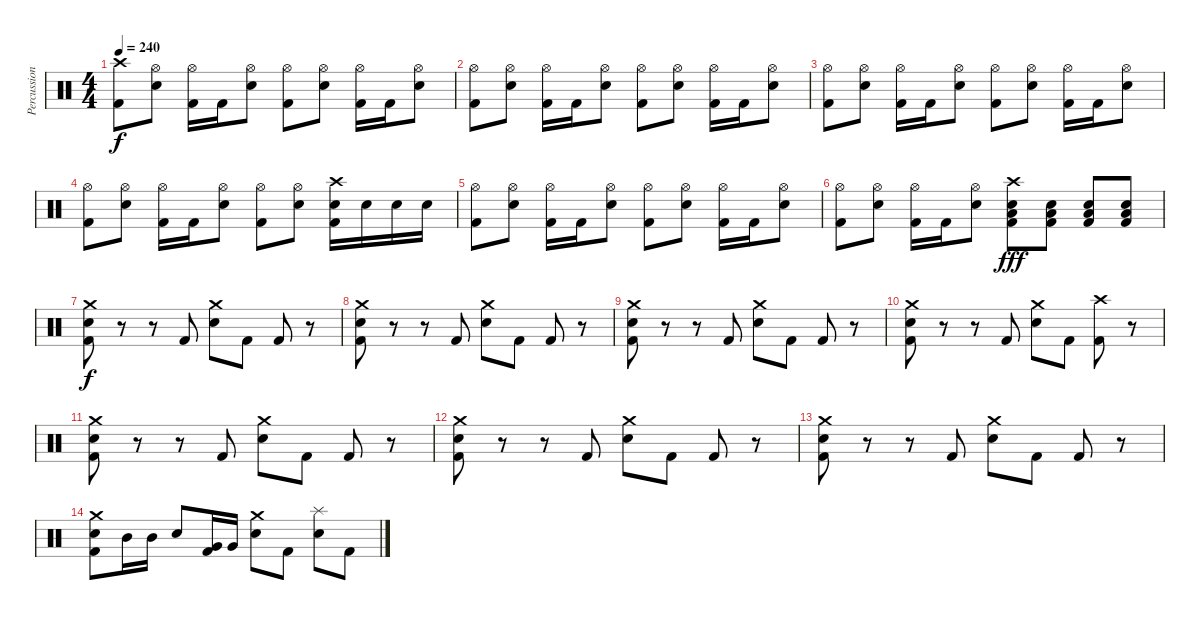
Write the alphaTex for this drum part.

\track ("Percussion" "Percussion") {instrument percussion}
\staff {score}
\articulation defaults
\ts (4 4)
\tempo 240
\clef neutral
\ks c
("Crash high (hit)" "Kick (hit) 2").8{dy f} ("Hi-Hat (open)" "Electric Snare (hit)").8 ("Hi-Hat (open)" "Kick (hit) 2").16 "Kick (hit) 2".16 ("Hi-Hat (open)" "Electric Snare (hit)").8 ("Hi-Hat (open)" "Kick (hit) 2").8 ("Hi-Hat (open)" "Electric Snare (hit)").8 ("Hi-Hat (open)" "Kick (hit) 2").16 "Kick (hit) 2".16 ("Hi-Hat (open)" "Electric Snare (hit)").8 |
("Hi-Hat (open)" "Kick (hit) 2").8 ("Hi-Hat (open)" "Electric Snare (hit)").8 ("Hi-Hat (open)" "Kick (hit) 2").16 "Kick (hit) 2".16 ("Hi-Hat (open)" "Electric Snare (hit)").8 ("Hi-Hat (open)" "Kick (hit) 2").8 ("Hi-Hat (open)" "Electric Snare (hit)").8 ("Hi-Hat (open)" "Kick (hit) 2").16 "Kick (hit) 2".16 ("Hi-Hat (open)" "Electric Snare (hit)").8 |
("Hi-Hat (open)" "Kick (hit) 2").8 ("Hi-Hat (open)" "Electric Snare (hit)").8 ("Hi-Hat (open)" "Kick (hit) 2").16 "Kick (hit) 2".16 ("Hi-Hat (open)" "Electric Snare (hit)").8 ("Hi-Hat (open)" "Kick (hit) 2").8 ("Hi-Hat (open)" "Electric Snare (hit)").8 ("Hi-Hat (open)" "Kick (hit) 2").16 "Kick (hit) 2".16 ("Hi-Hat (open)" "Electric Snare (hit)").8 |
("Hi-Hat (open)" "Kick (hit) 2").8 ("Hi-Hat (open)" "Electric Snare (hit)").8 ("Hi-Hat (open)" "Kick (hit) 2").16 "Kick (hit) 2".16 ("Hi-Hat (open)" "Electric Snare (hit)").8 ("Hi-Hat (open)" "Kick (hit) 2").8 ("Hi-Hat (open)" "Electric Snare (hit)").8 ("Crash high (hit)" "Electric Snare (hit)" "Kick (hit) 2").16 "Electric Snare (hit)".16 "Electric Snare (hit)".16 "Electric Snare (hit)".16 |
("Hi-Hat (open)" "Kick (hit) 2").8 ("Hi-Hat (open)" "Electric Snare (hit)").8 ("Hi-Hat (open)" "Kick (hit) 2").16 "Kick (hit) 2".16 ("Hi-Hat (open)" "Electric Snare (hit)").8 ("Hi-Hat (open)" "Kick (hit) 2").8 ("Hi-Hat (open)" "Electric Snare (hit)").8 ("Hi-Hat (open)" "Kick (hit) 2").16 "Kick (hit) 2".16 ("Hi-Hat (open)" "Electric Snare (hit)").8 |
("Hi-Hat (open)" "Kick (hit) 2").8 ("Hi-Hat (open)" "Electric Snare (hit)").8 ("Hi-Hat (open)" "Kick (hit) 2").16 "Kick (hit) 2".16 ("Hi-Hat (open)" "Electric Snare (hit)").8 ("Crash high (hit)" "Low Floor Tom (hit)" "Electric Snare (hit)" "Kick (hit) 2").8{dy fff} ("Low Floor Tom (hit)" "Electric Snare (hit)" "Kick (hit) 2").8 ("Low Floor Tom (hit)" "Electric Snare (hit)" "Kick (hit) 2").8 ("Low Floor Tom (hit)" "Electric Snare (hit)" "Kick (hit) 2").8 |
("Crash medium (hit)" "Electric Snare (hit)" "Kick (hit) 2").8{dy f} r.8 r.8 "Kick (hit) 2".8 ("Crash medium (hit)" "Electric Snare (hit)").8 "Kick (hit) 2".8 "Kick (hit) 2".8 r.8 |
("Crash medium (hit)" "Electric Snare (hit)" "Kick (hit) 2").8 r.8 r.8 "Kick (hit) 2".8 ("Crash medium (hit)" "Electric Snare (hit)").8 "Kick (hit) 2".8 "Kick (hit) 2".8 r.8 |
("Crash medium (hit)" "Electric Snare (hit)" "Kick (hit) 2").8 r.8 r.8 "Kick (hit) 2".8 ("Crash medium (hit)" "Electric Snare (hit)").8 "Kick (hit) 2".8 "Kick (hit) 2".8 r.8 |
("Crash medium (hit)" "Electric Snare (hit)" "Kick (hit) 2").8 r.8 r.8 "Kick (hit) 2".8 ("Crash medium (hit)" "Electric Snare (hit)").8 "Kick (hit) 2".8 ("Crash high (hit)" "Kick (hit) 2").8 r.8 |
("Crash medium (hit)" "Electric Snare (hit)" "Kick (hit) 2").8 r.8 r.8 "Kick (hit) 2".8 ("Crash medium (hit)" "Electric Snare (hit)").8 "Kick (hit) 2".8 "Kick (hit) 2".8 r.8 |
("Crash medium (hit)" "Electric Snare (hit)" "Kick (hit) 2").8 r.8 r.8 "Kick (hit) 2".8 ("Crash medium (hit)" "Electric Snare (hit)").8 "Kick (hit) 2".8 "Kick (hit) 2".8 r.8 |
("Crash medium (hit)" "Electric Snare (hit)" "Kick (hit) 2").8 r.8 r.8 "Kick (hit) 2".8 ("Crash medium (hit)" "Electric Snare (hit)").8 "Kick (hit) 2".8 "Kick (hit) 2".8 r.8 |
("Crash medium (hit)" "Electric Snare (hit)" "Kick (hit) 2").8 "Mid Tom (hit)".16 "Mid Tom (hit)".16 "Electric Snare (hit)".8 ("Very Low Tom (hit)" "Kick (hit) 2").16 "Very Low Tom (hit)".16 ("Crash medium (hit)" "Electric Snare (hit)").8 "Kick (hit) 2".8 ("Splash (hit)" "Electric Snare (hit)").8 "Kick (hit) 2".8
